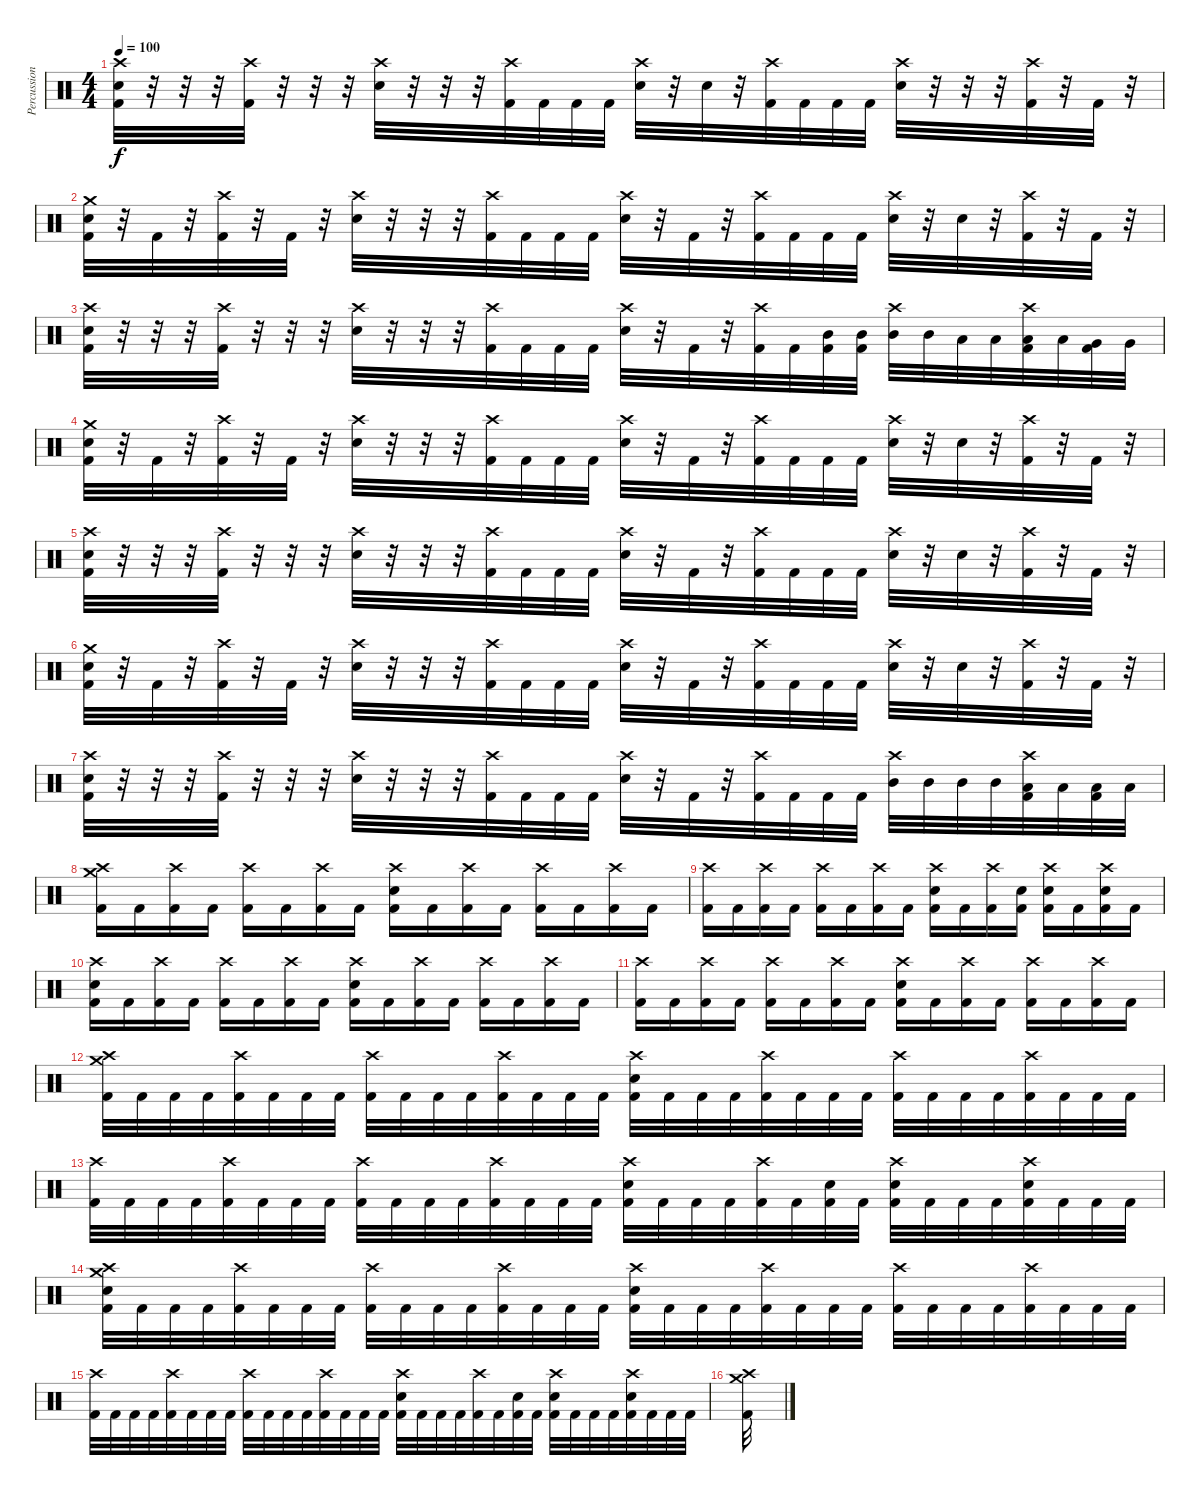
\track ("Percussion" "Percussion") {instrument percussion}
\staff {score}
\articulation defaults
\ts (4 4)
\tempo 100
\clef neutral
\ks c
("Crash high (hit)" "Electric Snare (hit)" "Kick (hit) 2").32{dy f} r.32 r.32 r.32 ("Crash high (hit)" "Kick (hit) 2").32 r.32 r.32 r.32 ("Crash high (hit)" "Electric Snare (hit)").32 r.32 r.32 r.32 ("Crash high (hit)" "Kick (hit) 2").32 "Kick (hit) 2".32 "Kick (hit) 2".32 "Kick (hit) 2".32 ("Crash high (hit)" "Electric Snare (hit)").32 r.32 "Electric Snare (hit)".32 r.32 ("Crash high (hit)" "Kick (hit) 2").32 "Kick (hit) 2".32 "Kick (hit) 2".32 "Kick (hit) 2".32 ("Crash high (hit)" "Electric Snare (hit)").32 r.32 r.32 r.32 ("Crash high (hit)" "Kick (hit) 2").32 r.32 "Kick (hit) 2".32 r.32 |
("Crash medium (hit)" "Electric Snare (hit)" "Kick (hit) 2").32 r.32 "Kick (hit) 2".32 r.32 ("Crash high (hit)" "Kick (hit) 2").32 r.32 "Kick (hit) 2".32 r.32 ("Crash high (hit)" "Electric Snare (hit)").32 r.32 r.32 r.32 ("Crash high (hit)" "Kick (hit) 2").32 "Kick (hit) 2".32 "Kick (hit) 2".32 "Kick (hit) 2".32 ("Crash high (hit)" "Electric Snare (hit)").32 r.32 "Kick (hit) 2".32 r.32 ("Crash high (hit)" "Kick (hit) 2").32 "Kick (hit) 2".32 "Kick (hit) 2".32 "Kick (hit) 2".32 ("Crash high (hit)" "Electric Snare (hit)").32 r.32 "Electric Snare (hit)".32 r.32 ("Crash high (hit)" "Kick (hit) 2").32 r.32 "Kick (hit) 2".32 r.32 |
("Crash high (hit)" "Electric Snare (hit)" "Kick (hit) 2").32 r.32 r.32 r.32 ("Crash high (hit)" "Kick (hit) 2").32 r.32 r.32 r.32 ("Crash high (hit)" "Electric Snare (hit)").32 r.32 r.32 r.32 ("Crash high (hit)" "Kick (hit) 2").32 "Kick (hit) 2".32 "Kick (hit) 2".32 "Kick (hit) 2".32 ("Crash high (hit)" "Electric Snare (hit)").32 r.32 "Kick (hit) 2".32 r.32 ("Crash high (hit)" "Kick (hit) 2").32 "Kick (hit) 2".32 ("Mid Tom (hit)" "Kick (hit) 2").32 ("Mid Tom (hit)" "Kick (hit) 2").32 ("Crash high (hit)" "Mid Tom (hit)").32 "Mid Tom (hit)".32 "Low Tom (hit)".32 "Low Tom (hit)".32 ("Crash high (hit)" "Low Tom (hit)" "Kick (hit) 2").32 "Low Tom (hit)".32 ("Very Low Tom (hit)" "Kick (hit) 2").32 "Very Low Tom (hit)".32 |
("Crash medium (hit)" "Electric Snare (hit)" "Kick (hit) 2").32 r.32 "Kick (hit) 2".32 r.32 ("Crash high (hit)" "Kick (hit) 2").32 r.32 "Kick (hit) 2".32 r.32 ("Crash high (hit)" "Electric Snare (hit)").32 r.32 r.32 r.32 ("Crash high (hit)" "Kick (hit) 2").32 "Kick (hit) 2".32 "Kick (hit) 2".32 "Kick (hit) 2".32 ("Crash high (hit)" "Electric Snare (hit)").32 r.32 "Kick (hit) 2".32 r.32 ("Crash high (hit)" "Kick (hit) 2").32 "Kick (hit) 2".32 "Kick (hit) 2".32 "Kick (hit) 2".32 ("Crash high (hit)" "Electric Snare (hit)").32 r.32 "Electric Snare (hit)".32 r.32 ("Crash high (hit)" "Kick (hit) 2").32 r.32 "Kick (hit) 2".32 r.32 |
("Crash high (hit)" "Electric Snare (hit)" "Kick (hit) 2").32 r.32 r.32 r.32 ("Crash high (hit)" "Kick (hit) 2").32 r.32 r.32 r.32 ("Crash high (hit)" "Electric Snare (hit)").32 r.32 r.32 r.32 ("Crash high (hit)" "Kick (hit) 2").32 "Kick (hit) 2".32 "Kick (hit) 2".32 "Kick (hit) 2".32 ("Crash high (hit)" "Electric Snare (hit)").32 r.32 "Kick (hit) 2".32 r.32 ("Crash high (hit)" "Kick (hit) 2").32 "Kick (hit) 2".32 "Kick (hit) 2".32 "Kick (hit) 2".32 ("Crash high (hit)" "Electric Snare (hit)").32 r.32 "Electric Snare (hit)".32 r.32 ("Crash high (hit)" "Kick (hit) 2").32 r.32 "Kick (hit) 2".32 r.32 |
("Crash medium (hit)" "Electric Snare (hit)" "Kick (hit) 2").32 r.32 "Kick (hit) 2".32 r.32 ("Crash high (hit)" "Kick (hit) 2").32 r.32 "Kick (hit) 2".32 r.32 ("Crash high (hit)" "Electric Snare (hit)").32 r.32 r.32 r.32 ("Crash high (hit)" "Kick (hit) 2").32 "Kick (hit) 2".32 "Kick (hit) 2".32 "Kick (hit) 2".32 ("Crash high (hit)" "Electric Snare (hit)").32 r.32 "Kick (hit) 2".32 r.32 ("Crash high (hit)" "Kick (hit) 2").32 "Kick (hit) 2".32 "Kick (hit) 2".32 "Kick (hit) 2".32 ("Crash high (hit)" "Electric Snare (hit)").32 r.32 "Electric Snare (hit)".32 r.32 ("Crash high (hit)" "Kick (hit) 2").32 r.32 "Kick (hit) 2".32 r.32 |
("Crash high (hit)" "Electric Snare (hit)" "Kick (hit) 2").32 r.32 r.32 r.32 ("Crash high (hit)" "Kick (hit) 2").32 r.32 r.32 r.32 ("Crash high (hit)" "Electric Snare (hit)").32 r.32 r.32 r.32 ("Crash high (hit)" "Kick (hit) 2").32 "Kick (hit) 2".32 "Kick (hit) 2".32 "Kick (hit) 2".32 ("Crash high (hit)" "Electric Snare (hit)").32 r.32 "Kick (hit) 2".32 r.32 ("Crash high (hit)" "Kick (hit) 2").32 "Kick (hit) 2".32 "Kick (hit) 2".32 "Kick (hit) 2".32 ("Crash high (hit)" "Mid Tom (hit)").32 "Mid Tom (hit)".32 "Mid Tom (hit)".32 "Mid Tom (hit)".32 ("Crash high (hit)" "Low Tom (hit)" "Kick (hit) 2").32 "Low Tom (hit)".32 ("Low Tom (hit)" "Kick (hit) 2").32 "Low Tom (hit)".32 |
("Crash high (hit)" "Crash medium (hit)" "Kick (hit) 2").16 "Kick (hit) 2".16 ("Crash high (hit)" "Kick (hit) 2").16 "Kick (hit) 2".16 ("Crash high (hit)" "Kick (hit) 2").16 "Kick (hit) 2".16 ("Crash high (hit)" "Kick (hit) 2").16 "Kick (hit) 2".16 ("Crash high (hit)" "Electric Snare (hit)" "Kick (hit) 2").16 "Kick (hit) 2".16 ("Crash high (hit)" "Kick (hit) 2").16 "Kick (hit) 2".16 ("Crash high (hit)" "Kick (hit) 2").16 "Kick (hit) 2".16 ("Crash high (hit)" "Kick (hit) 2").16 "Kick (hit) 2".16 |
("Crash high (hit)" "Kick (hit) 2").16 "Kick (hit) 2".16 ("Crash high (hit)" "Kick (hit) 2").16 "Kick (hit) 2".16 ("Crash high (hit)" "Kick (hit) 2").16 "Kick (hit) 2".16 ("Crash high (hit)" "Kick (hit) 2").16 "Kick (hit) 2".16 ("Crash high (hit)" "Electric Snare (hit)" "Kick (hit) 2").16 "Kick (hit) 2".16 ("Crash high (hit)" "Kick (hit) 2").16 ("Electric Snare (hit)" "Kick (hit) 2").16 ("Crash high (hit)" "Electric Snare (hit)" "Kick (hit) 2").16 "Kick (hit) 2".16 ("Crash high (hit)" "Electric Snare (hit)" "Kick (hit) 2").16 "Kick (hit) 2".16 |
("Crash high (hit)" "Electric Snare (hit)" "Kick (hit) 2").16 "Kick (hit) 2".16 ("Crash high (hit)" "Kick (hit) 2").16 "Kick (hit) 2".16 ("Crash high (hit)" "Kick (hit) 2").16 "Kick (hit) 2".16 ("Crash high (hit)" "Kick (hit) 2").16 "Kick (hit) 2".16 ("Crash high (hit)" "Electric Snare (hit)" "Kick (hit) 2").16 "Kick (hit) 2".16 ("Crash high (hit)" "Kick (hit) 2").16 "Kick (hit) 2".16 ("Crash high (hit)" "Kick (hit) 2").16 "Kick (hit) 2".16 ("Crash high (hit)" "Kick (hit) 2").16 "Kick (hit) 2".16 |
("Crash high (hit)" "Kick (hit) 2").16 "Kick (hit) 2".16 ("Crash high (hit)" "Kick (hit) 2").16 "Kick (hit) 2".16 ("Crash high (hit)" "Kick (hit) 2").16 "Kick (hit) 2".16 ("Crash high (hit)" "Kick (hit) 2").16 "Kick (hit) 2".16 ("Crash high (hit)" "Electric Snare (hit)" "Kick (hit) 2").16 "Kick (hit) 2".16 ("Crash high (hit)" "Kick (hit) 2").16 "Kick (hit) 2".16 ("Crash high (hit)" "Kick (hit) 2").16 "Kick (hit) 2".16 ("Crash high (hit)" "Kick (hit) 2").16 "Kick (hit) 2".16 |
("Crash high (hit)" "Crash medium (hit)" "Kick (hit) 2").32 "Kick (hit) 2".32 "Kick (hit) 2".32 "Kick (hit) 2".32 ("Crash high (hit)" "Kick (hit) 2").32 "Kick (hit) 2".32 "Kick (hit) 2".32 "Kick (hit) 2".32 ("Crash high (hit)" "Kick (hit) 2").32 "Kick (hit) 2".32 "Kick (hit) 2".32 "Kick (hit) 2".32 ("Crash high (hit)" "Kick (hit) 2").32 "Kick (hit) 2".32 "Kick (hit) 2".32 "Kick (hit) 2".32 ("Crash high (hit)" "Electric Snare (hit)" "Kick (hit) 2").32 "Kick (hit) 2".32 "Kick (hit) 2".32 "Kick (hit) 2".32 ("Crash high (hit)" "Kick (hit) 2").32 "Kick (hit) 2".32 "Kick (hit) 2".32 "Kick (hit) 2".32 ("Crash high (hit)" "Kick (hit) 2").32 "Kick (hit) 2".32 "Kick (hit) 2".32 "Kick (hit) 2".32 ("Crash high (hit)" "Kick (hit) 2").32 "Kick (hit) 2".32 "Kick (hit) 2".32 "Kick (hit) 2".32 |
("Crash high (hit)" "Kick (hit) 2").32 "Kick (hit) 2".32 "Kick (hit) 2".32 "Kick (hit) 2".32 ("Crash high (hit)" "Kick (hit) 2").32 "Kick (hit) 2".32 "Kick (hit) 2".32 "Kick (hit) 2".32 ("Crash high (hit)" "Kick (hit) 2").32 "Kick (hit) 2".32 "Kick (hit) 2".32 "Kick (hit) 2".32 ("Crash high (hit)" "Kick (hit) 2").32 "Kick (hit) 2".32 "Kick (hit) 2".32 "Kick (hit) 2".32 ("Crash high (hit)" "Electric Snare (hit)" "Kick (hit) 2").32 "Kick (hit) 2".32 "Kick (hit) 2".32 "Kick (hit) 2".32 ("Crash high (hit)" "Kick (hit) 2").32 "Kick (hit) 2".32 ("Electric Snare (hit)" "Kick (hit) 2").32 "Kick (hit) 2".32 ("Crash high (hit)" "Electric Snare (hit)" "Kick (hit) 2").32 "Kick (hit) 2".32 "Kick (hit) 2".32 "Kick (hit) 2".32 ("Crash high (hit)" "Electric Snare (hit)" "Kick (hit) 2").32 "Kick (hit) 2".32 "Kick (hit) 2".32 "Kick (hit) 2".32 |
("Crash high (hit)" "Crash medium (hit)" "Electric Snare (hit)" "Kick (hit) 2").32 "Kick (hit) 2".32 "Kick (hit) 2".32 "Kick (hit) 2".32 ("Crash high (hit)" "Kick (hit) 2").32 "Kick (hit) 2".32 "Kick (hit) 2".32 "Kick (hit) 2".32 ("Crash high (hit)" "Kick (hit) 2").32 "Kick (hit) 2".32 "Kick (hit) 2".32 "Kick (hit) 2".32 ("Crash high (hit)" "Kick (hit) 2").32 "Kick (hit) 2".32 "Kick (hit) 2".32 "Kick (hit) 2".32 ("Crash high (hit)" "Electric Snare (hit)" "Kick (hit) 2").32 "Kick (hit) 2".32 "Kick (hit) 2".32 "Kick (hit) 2".32 ("Crash high (hit)" "Kick (hit) 2").32 "Kick (hit) 2".32 "Kick (hit) 2".32 "Kick (hit) 2".32 ("Crash high (hit)" "Kick (hit) 2").32 "Kick (hit) 2".32 "Kick (hit) 2".32 "Kick (hit) 2".32 ("Crash high (hit)" "Kick (hit) 2").32 "Kick (hit) 2".32 "Kick (hit) 2".32 "Kick (hit) 2".32 |
("Crash high (hit)" "Kick (hit) 2").32 "Kick (hit) 2".32 "Kick (hit) 2".32 "Kick (hit) 2".32 ("Crash high (hit)" "Kick (hit) 2").32 "Kick (hit) 2".32 "Kick (hit) 2".32 "Kick (hit) 2".32 ("Crash high (hit)" "Kick (hit) 2").32 "Kick (hit) 2".32 "Kick (hit) 2".32 "Kick (hit) 2".32 ("Crash high (hit)" "Kick (hit) 2").32 "Kick (hit) 2".32 "Kick (hit) 2".32 "Kick (hit) 2".32 ("Crash high (hit)" "Electric Snare (hit)" "Kick (hit) 2").32 "Kick (hit) 2".32 "Kick (hit) 2".32 "Kick (hit) 2".32 ("Crash high (hit)" "Kick (hit) 2").32 "Kick (hit) 2".32 ("Electric Snare (hit)" "Kick (hit) 2").32 "Kick (hit) 2".32 ("Crash high (hit)" "Electric Snare (hit)" "Kick (hit) 2").32 "Kick (hit) 2".32 "Kick (hit) 2".32 "Kick (hit) 2".32 ("Crash high (hit)" "Electric Snare (hit)" "Kick (hit) 2").32 "Kick (hit) 2".32 "Kick (hit) 2".32 "Kick (hit) 2".32 |
("Crash high (hit)" "Crash medium (hit)" "Kick (hit) 2").32
